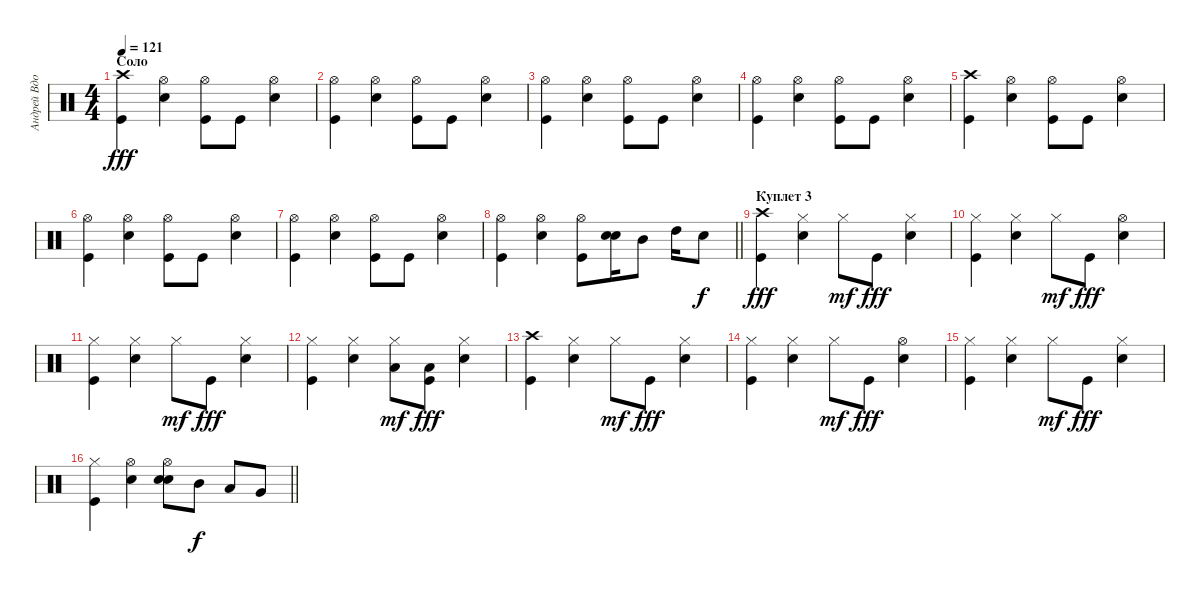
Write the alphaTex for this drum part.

\track ("Андрей Вдовиченко" "Андрей Вдо") {instrument percussion}
\staff {score}
\articulation defaults
\ts (4 4)
\section ("" "Соло")
\tempo 121
\clef neutral
\ks c
("Crash high (hit)" "Kick (hit)").4{dy fff} ("Hi-Hat (open)" "Electric Snare (hit)").4 ("Hi-Hat (open)" "Kick (hit)").8 "Kick (hit)".8 ("Hi-Hat (open)" "Electric Snare (hit)").4 |
("Hi-Hat (open)" "Kick (hit)").4 ("Hi-Hat (open)" "Electric Snare (hit)").4 ("Hi-Hat (open)" "Kick (hit)").8 "Kick (hit)".8 ("Hi-Hat (open)" "Electric Snare (hit)").4 |
("Hi-Hat (open)" "Kick (hit)").4 ("Hi-Hat (open)" "Electric Snare (hit)").4 ("Hi-Hat (open)" "Kick (hit)").8 "Kick (hit)".8 ("Hi-Hat (open)" "Electric Snare (hit)").4 |
("Hi-Hat (open)" "Kick (hit)").4 ("Hi-Hat (open)" "Electric Snare (hit)").4 ("Hi-Hat (open)" "Kick (hit)").8 "Kick (hit)".8 ("Hi-Hat (open)" "Electric Snare (hit)").4 |
("Crash high (hit)" "Kick (hit)").4 ("Hi-Hat (open)" "Electric Snare (hit)").4 ("Hi-Hat (open)" "Kick (hit)").8 "Kick (hit)".8 ("Hi-Hat (open)" "Electric Snare (hit)").4 |
("Hi-Hat (open)" "Kick (hit)").4 ("Hi-Hat (open)" "Electric Snare (hit)").4 ("Hi-Hat (open)" "Kick (hit)").8 "Kick (hit)".8 ("Hi-Hat (open)" "Electric Snare (hit)").4 |
("Hi-Hat (open)" "Kick (hit)").4 ("Hi-Hat (open)" "Electric Snare (hit)").4 ("Hi-Hat (open)" "Kick (hit)").8 "Kick (hit)".8 ("Hi-Hat (open)" "Electric Snare (hit)").4 |
\barLineRight lightlight
("Hi-Hat (open)" "Kick (hit)").4 ("Hi-Hat (open)" "Electric Snare (hit)").4 ("Hi-Hat (open)" "Kick (hit)").8 ("Electric Snare (hit)" "Snare (hit) 2").16 "Mid Tom (hit)".8 "High Tom (hit)".16 "Snare (hit) 2".8{dy f} |
\section ("" "Куплет 3")
("Crash high (hit)" "Kick (hit)").4{dy fff} ("Hi-Hat (closed)" "Electric Snare (hit)").4 "Hi-Hat (closed)".8{dy mf} "Kick (hit)".8{dy fff} ("Hi-Hat (closed)" "Electric Snare (hit)").4 |
("Hi-Hat (closed)" "Kick (hit)").4 ("Hi-Hat (closed)" "Electric Snare (hit)").4 "Hi-Hat (closed)".8{dy mf} "Kick (hit)".8{dy fff} ("Hi-Hat (open)" "Electric Snare (hit)").4 |
("Hi-Hat (closed)" "Kick (hit)").4 ("Hi-Hat (closed)" "Electric Snare (hit)").4 "Hi-Hat (closed)".8{dy mf} "Kick (hit)".8{dy fff} ("Hi-Hat (closed)" "Electric Snare (hit)").4 |
("Hi-Hat (closed)" "Kick (hit)").4 ("Hi-Hat (closed)" "Electric Snare (hit)").4 ("Hi-Hat (closed)" "Low Tom (hit)").8{dy mf} ("Low Tom (hit)" "Kick (hit)").8{dy fff} ("Hi-Hat (closed)" "Electric Snare (hit)").4 |
("Crash high (hit)" "Kick (hit)").4 ("Hi-Hat (closed)" "Electric Snare (hit)").4 "Hi-Hat (closed)".8{dy mf} "Kick (hit)".8{dy fff} ("Hi-Hat (closed)" "Electric Snare (hit)").4 |
("Hi-Hat (closed)" "Kick (hit)").4 ("Hi-Hat (closed)" "Electric Snare (hit)").4 "Hi-Hat (closed)".8{dy mf} "Kick (hit)".8{dy fff} ("Hi-Hat (open)" "Electric Snare (hit)").4 |
("Hi-Hat (closed)" "Kick (hit)").4 ("Hi-Hat (closed)" "Electric Snare (hit)").4 "Hi-Hat (closed)".8{dy mf} "Kick (hit)".8{dy fff} ("Hi-Hat (closed)" "Electric Snare (hit)").4 |
\barLineRight lightlight
("Hi-Hat (closed)" "Kick (hit)").4 ("Hi-Hat (open)" "Electric Snare (hit)").4 ("Hi-Hat (open)" "Snare (hit) 2" "Electric Snare (hit)").8 "Mid Tom (hit)".8{dy f} "Low Tom (hit)".8 "Very Low Tom (hit)".8
